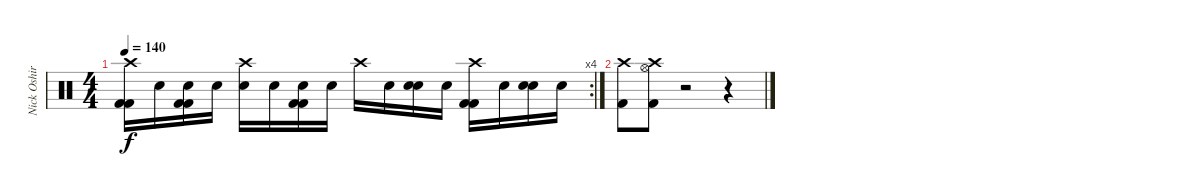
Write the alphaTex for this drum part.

\track ("Nick Oshiro / Drums" "Nick Oshir") {instrument percussion}
\staff {score}
\articulation defaults
\rc 4
\ts (4 4)
\tempo 140
\clef neutral
\ks c
("Crash high (hit)" "Kick (hit) 2" "Kick (hit) 2").16{dy f} "Snare (hit)".16 ("Snare (hit)" "Kick (hit) 2" "Kick (hit) 2").16 "Snare (hit)".16 ("Crash high (hit)" "Electric Snare (hit)").16 "Snare (hit)".16 ("Snare (hit)" "Kick (hit) 2" "Kick (hit) 2").16 "Snare (hit)".16 "Crash high (hit)".16 "Snare (hit)".16 ("Snare (hit)" "Electric Snare (hit)").16 "Snare (hit)".16 ("Crash high (hit)" "Kick (hit) 2" "Kick (hit) 2").16 "Snare (hit)".16 ("Snare (hit)" "Electric Snare (hit)").16 "Snare (hit)".16 |
("Crash high (hit)" "Kick (hit) 2").8 ("Crash high (hit)" "Hi-Hat (open)" "Kick (hit) 2").8 r.2 r.4
